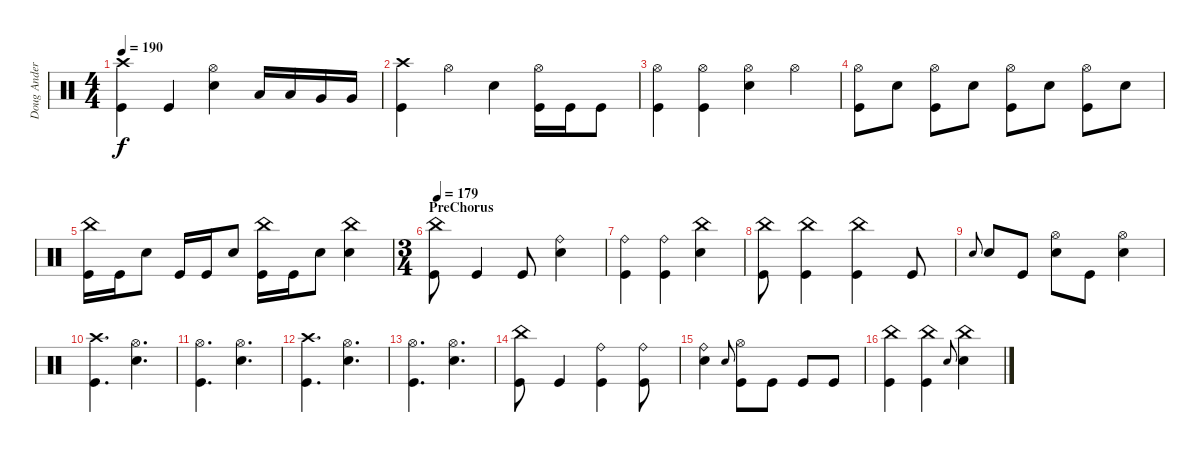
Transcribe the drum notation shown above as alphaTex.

\track ("Doug Anderson" "Doug Ander") {instrument percussion}
\staff {score}
\articulation defaults
\ts (4 4)
\tempo 190
\clef neutral
\ks c
("Crash high (hit)" "Kick (hit)").4{dy f} "Kick (hit)".4 ("Snare (hit) 2" "Hi-Hat (open)").4 "Low Tom (hit)".16 "Low Tom (hit)".16 "Very Low Tom (hit)".16 "Very Low Tom (hit)".16 |
("Kick (hit)" "Crash high (hit)").4 "Hi-Hat (open)".4 "Snare (hit) 2".4 ("Hi-Hat (open)" "Kick (hit)").16 "Kick (hit)".16 "Kick (hit)".8 |
("Kick (hit)" "Hi-Hat (open)").4 ("Kick (hit)" "Hi-Hat (open)").4 ("Hi-Hat (open)" "Snare (hit) 2").4 "Hi-Hat (open)".4 |
("Kick (hit)" "Hi-Hat (open)").8 "Snare (hit) 2".8 ("Kick (hit)" "Hi-Hat (open)").8 "Snare (hit) 2".8 ("Kick (hit)" "Hi-Hat (open)").8 "Snare (hit) 2".8 ("Kick (hit)" "Hi-Hat (open)").8 "Snare (hit) 2".8 |
("Kick (hit)" "China (hit)").16 "Kick (hit)".16 "Snare (hit) 2".8 "Kick (hit)".16 "Kick (hit)".16 "Snare (hit) 2".8 ("Kick (hit)" "China (hit)").16 "Kick (hit)".16 "Snare (hit) 2".8 ("Snare (hit) 2" "China (hit)").4 |
\ts (3 4)
\section ("" "PreChorus")
\tempo 179
("Kick (hit)" "China (hit)").8 "Kick (hit)".4 "Kick (hit)".8 ("Snare (hit) 2" "Ride (bell)").4 |
("Kick (hit)" "Ride (bell)").4 ("Kick (hit)" "Ride (bell)").4 ("Snare (hit) 2" "China (hit)").4 |
("Kick (hit)" "China (hit)").8 ("Kick (hit)" "China (hit)").4 ("Kick (hit)" "China (hit)").4 "Kick (hit)".8 |
"Snare (hit)".8{gr onbeat} "Snare (hit) 2".8 "Kick (hit)".8 ("Snare (hit) 2" "Hi-Hat (open)").8 "Kick (hit)".8 ("Snare (hit) 2" "Hi-Hat (open)").4 |
("Kick (hit)" "Crash high (hit)").4{d} ("Snare (hit) 2" "Hi-Hat (open)").4{d} |
("Kick (hit)" "Hi-Hat (open)").4{d} ("Snare (hit) 2" "Hi-Hat (open)").4{d} |
("Kick (hit)" "Crash high (hit)").4{d} ("Snare (hit) 2" "Hi-Hat (open)").4{d} |
("Kick (hit)" "Hi-Hat (open)").4{d} ("Snare (hit) 2" "Hi-Hat (open)").4{d} |
("Kick (hit)" "China (hit)").8 "Kick (hit)".4 ("Kick (hit)" "Ride (bell)").4 ("Kick (hit)" "Ride (bell)").8 |
("Snare (hit) 2" "Ride (bell)").4 "Snare (hit)".8{gr onbeat} ("Kick (hit)" "Hi-Hat (open)").8 "Kick (hit)".8 "Kick (hit)".8 "Kick (hit)".8 |
("Kick (hit)" "China (hit)").4 ("Kick (hit)" "China (hit)").4 "Snare (hit)".8{gr onbeat} ("Snare (hit) 2" "China (hit)").4
